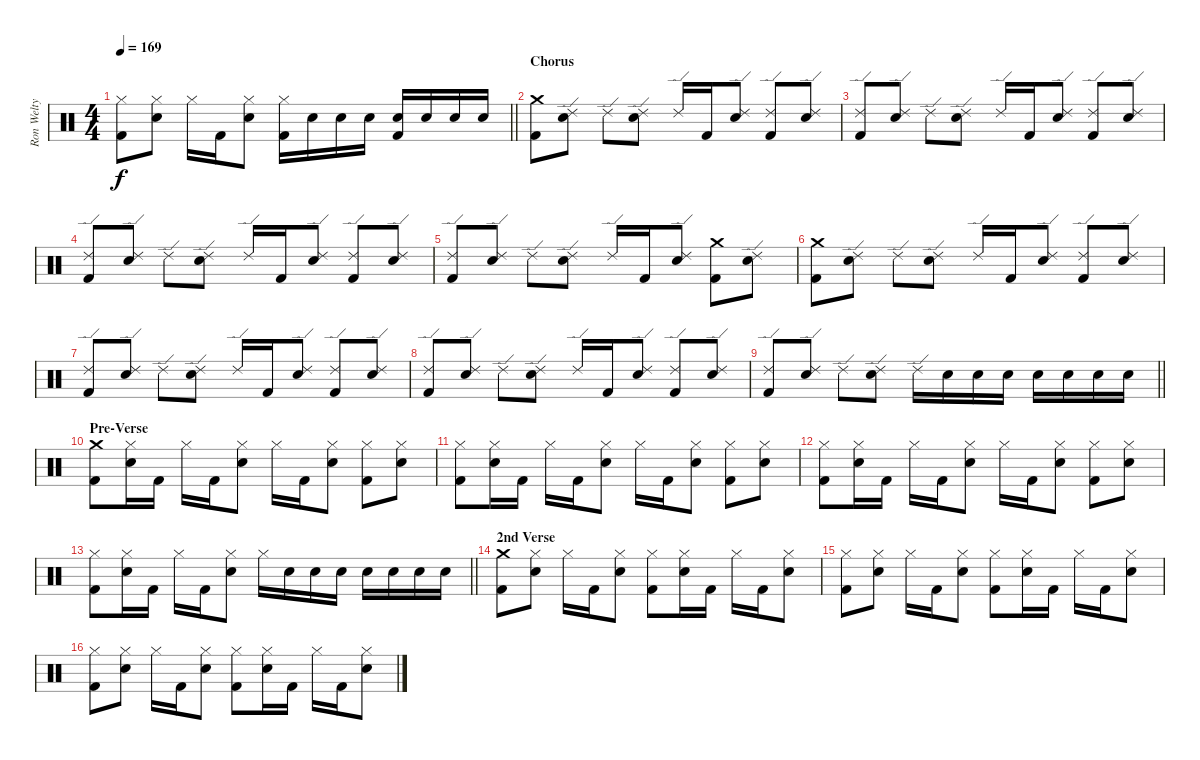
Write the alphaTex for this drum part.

\track ("Ron Welty - Drums" "Ron Welty ") {instrument percussion}
\staff {score}
\articulation defaults
\ts (4 4)
\tempo 169
\clef neutral
\barLineRight lightlight
\ks c
("Hi-Hat (closed)" "Kick (hit) 2").8{dy f} ("Hi-Hat (closed)" "Electric Snare (hit)").8 "Hi-Hat (closed)".16 "Kick (hit) 2".16 ("Hi-Hat (closed)" "Electric Snare (hit)").8 ("Hi-Hat (closed)" "Kick (hit) 2").16 "Electric Snare (hit)".16 "Electric Snare (hit)".16 "Electric Snare (hit)".16 ("Electric Snare (hit)" "Kick (hit) 2").16 "Electric Snare (hit)".16 "Electric Snare (hit)".16 "Electric Snare (hit)".16 |
\section ("" "Chorus")
("Crash medium (hit)" "Kick (hit) 2").8 ("Ride (edge) 2" "Electric Snare (hit)").8 "Ride (edge) 2".8 ("Ride (edge) 2" "Electric Snare (hit)").8 "Ride (edge) 2".16 "Kick (hit) 2".16 ("Ride (edge) 2" "Electric Snare (hit)").8 ("Ride (edge) 2" "Kick (hit) 2").8 ("Ride (edge) 2" "Electric Snare (hit)").8 |
("Ride (edge) 2" "Kick (hit) 2").8 ("Ride (edge) 2" "Electric Snare (hit)").8 "Ride (edge) 2".8 ("Ride (edge) 2" "Electric Snare (hit)").8 "Ride (edge) 2".16 "Kick (hit) 2".16 ("Ride (edge) 2" "Electric Snare (hit)").8 ("Ride (edge) 2" "Kick (hit) 2").8 ("Ride (edge) 2" "Electric Snare (hit)").8 |
("Ride (edge) 2" "Kick (hit) 2").8 ("Ride (edge) 2" "Electric Snare (hit)").8 "Ride (edge) 2".8 ("Ride (edge) 2" "Electric Snare (hit)").8 "Ride (edge) 2".16 "Kick (hit) 2".16 ("Ride (edge) 2" "Electric Snare (hit)").8 ("Ride (edge) 2" "Kick (hit) 2").8 ("Ride (edge) 2" "Electric Snare (hit)").8 |
("Ride (edge) 2" "Kick (hit) 2").8 ("Ride (edge) 2" "Electric Snare (hit)").8 "Ride (edge) 2".8 ("Ride (edge) 2" "Electric Snare (hit)").8 "Ride (edge) 2".16 "Kick (hit) 2".16 ("Ride (edge) 2" "Electric Snare (hit)").8 ("Crash medium (hit)" "Kick (hit) 2").8 ("Ride (edge) 2" "Electric Snare (hit)").8 |
("Crash medium (hit)" "Kick (hit) 2").8 ("Ride (edge) 2" "Electric Snare (hit)").8 "Ride (edge) 2".8 ("Ride (edge) 2" "Electric Snare (hit)").8 "Ride (edge) 2".16 "Kick (hit) 2".16 ("Ride (edge) 2" "Electric Snare (hit)").8 ("Ride (edge) 2" "Kick (hit) 2").8 ("Ride (edge) 2" "Electric Snare (hit)").8 |
("Ride (edge) 2" "Kick (hit) 2").8 ("Ride (edge) 2" "Electric Snare (hit)").8 "Ride (edge) 2".8 ("Ride (edge) 2" "Electric Snare (hit)").8 "Ride (edge) 2".16 "Kick (hit) 2".16 ("Ride (edge) 2" "Electric Snare (hit)").8 ("Ride (edge) 2" "Kick (hit) 2").8 ("Ride (edge) 2" "Electric Snare (hit)").8 |
("Ride (edge) 2" "Kick (hit) 2").8 ("Ride (edge) 2" "Electric Snare (hit)").8 "Ride (edge) 2".8 ("Ride (edge) 2" "Electric Snare (hit)").8 "Ride (edge) 2".16 "Kick (hit) 2".16 ("Ride (edge) 2" "Electric Snare (hit)").8 ("Ride (edge) 2" "Kick (hit) 2").8 ("Ride (edge) 2" "Electric Snare (hit)").8 |
\barLineRight lightlight
("Ride (edge) 2" "Kick (hit) 2").8 ("Ride (edge) 2" "Electric Snare (hit)").8 "Ride (edge) 2".8 ("Ride (edge) 2" "Electric Snare (hit)").8 "Ride (edge) 2".16 "Electric Snare (hit)".16 "Electric Snare (hit)".16 "Electric Snare (hit)".16 "Electric Snare (hit)".16 "Electric Snare (hit)".16 "Electric Snare (hit)".16 "Electric Snare (hit)".16 |
\section ("" "Pre-Verse")
("Crash medium (hit)" "Kick (hit) 2").8 ("Hi-Hat (closed)" "Electric Snare (hit)").16 "Kick (hit) 2".16 "Hi-Hat (closed)".16 "Kick (hit) 2".16 ("Hi-Hat (closed)" "Electric Snare (hit)").8 "Hi-Hat (closed)".16 "Kick (hit) 2".16 ("Hi-Hat (closed)" "Electric Snare (hit)").8 ("Hi-Hat (closed)" "Kick (hit) 2").8 ("Hi-Hat (closed)" "Electric Snare (hit)").8 |
("Hi-Hat (closed)" "Kick (hit) 2").8 ("Hi-Hat (closed)" "Electric Snare (hit)").16 "Kick (hit) 2".16 "Hi-Hat (closed)".16 "Kick (hit) 2".16 ("Hi-Hat (closed)" "Electric Snare (hit)").8 "Hi-Hat (closed)".16 "Kick (hit) 2".16 ("Hi-Hat (closed)" "Electric Snare (hit)").8 ("Hi-Hat (closed)" "Kick (hit) 2").8 ("Hi-Hat (closed)" "Electric Snare (hit)").8 |
("Hi-Hat (closed)" "Kick (hit) 2").8 ("Hi-Hat (closed)" "Electric Snare (hit)").16 "Kick (hit) 2".16 "Hi-Hat (closed)".16 "Kick (hit) 2".16 ("Hi-Hat (closed)" "Electric Snare (hit)").8 "Hi-Hat (closed)".16 "Kick (hit) 2".16 ("Hi-Hat (closed)" "Electric Snare (hit)").8 ("Hi-Hat (closed)" "Kick (hit) 2").8 ("Hi-Hat (closed)" "Electric Snare (hit)").8 |
\barLineRight lightlight
("Hi-Hat (closed)" "Kick (hit) 2").8 ("Hi-Hat (closed)" "Electric Snare (hit)").16 "Kick (hit) 2".16 "Hi-Hat (closed)".16 "Kick (hit) 2".16 ("Hi-Hat (closed)" "Electric Snare (hit)").8 "Hi-Hat (closed)".16 "Electric Snare (hit)".16 "Electric Snare (hit)".16 "Electric Snare (hit)".16 "Electric Snare (hit)".16 "Electric Snare (hit)".16 "Electric Snare (hit)".16 "Electric Snare (hit)".16 |
\section ("" "2nd Verse")
("Crash medium (hit)" "Kick (hit) 2").8 ("Hi-Hat (closed)" "Electric Snare (hit)").8 "Hi-Hat (closed)".16 "Kick (hit) 2".16 ("Hi-Hat (closed)" "Electric Snare (hit)").8 ("Hi-Hat (closed)" "Kick (hit) 2").8 ("Hi-Hat (closed)" "Electric Snare (hit)").16 "Kick (hit) 2".16 "Hi-Hat (closed)".16 "Kick (hit) 2".16 ("Hi-Hat (closed)" "Electric Snare (hit)").8 |
("Hi-Hat (closed)" "Kick (hit) 2").8 ("Hi-Hat (closed)" "Electric Snare (hit)").8 "Hi-Hat (closed)".16 "Kick (hit) 2".16 ("Hi-Hat (closed)" "Electric Snare (hit)").8 ("Hi-Hat (closed)" "Kick (hit) 2").8 ("Hi-Hat (closed)" "Electric Snare (hit)").16 "Kick (hit) 2".16 "Hi-Hat (closed)".16 "Kick (hit) 2".16 ("Hi-Hat (closed)" "Electric Snare (hit)").8 |
("Hi-Hat (closed)" "Kick (hit) 2").8 ("Hi-Hat (closed)" "Electric Snare (hit)").8 "Hi-Hat (closed)".16 "Kick (hit) 2".16 ("Hi-Hat (closed)" "Electric Snare (hit)").8 ("Hi-Hat (closed)" "Kick (hit) 2").8 ("Hi-Hat (closed)" "Electric Snare (hit)").16 "Kick (hit) 2".16 "Hi-Hat (closed)".16 "Kick (hit) 2".16 ("Hi-Hat (closed)" "Electric Snare (hit)").8
